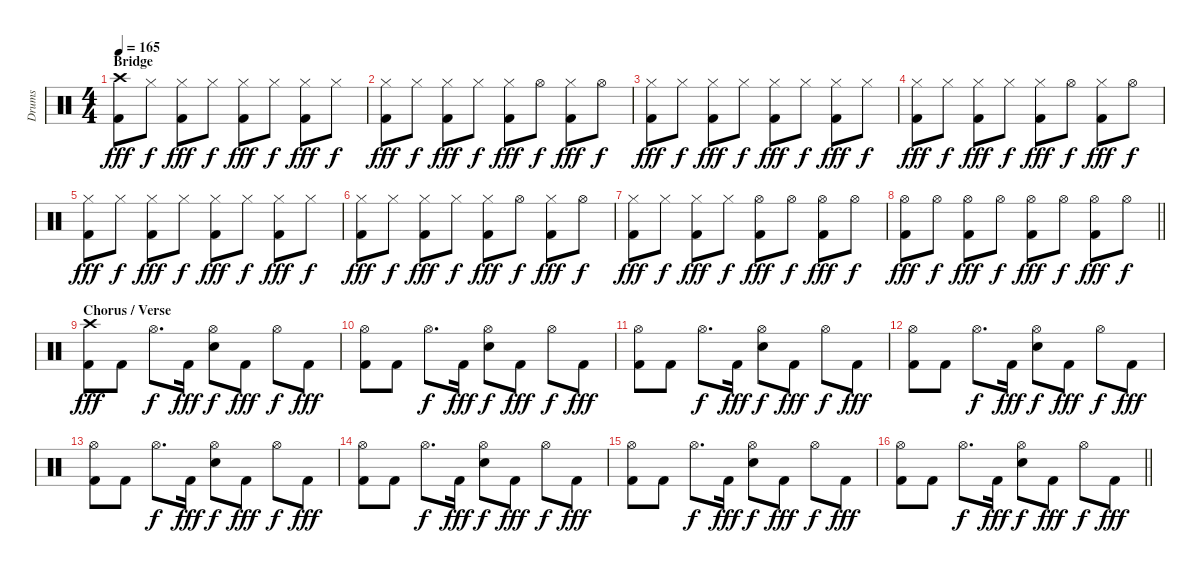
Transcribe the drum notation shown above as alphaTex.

\track ("Drums" "Drums") {instrument percussion}
\staff {score}
\articulation defaults
\ts (4 4)
\section ("" "Bridge")
\tempo 165
\clef neutral
\ks c
("Crash high (hit)" "Kick (hit) 2").8{dy fff} "Hi-Hat (closed)".8{dy f} ("Hi-Hat (closed)" "Kick (hit) 2").8{dy fff} "Hi-Hat (closed)".8{dy f} ("Hi-Hat (closed)" "Kick (hit) 2").8{dy fff} "Hi-Hat (closed)".8{dy f} ("Hi-Hat (closed)" "Kick (hit) 2").8{dy fff} "Hi-Hat (closed)".8{dy f} |
("Hi-Hat (closed)" "Kick (hit) 2").8{dy fff} "Hi-Hat (closed)".8{dy f} ("Hi-Hat (closed)" "Kick (hit) 2").8{dy fff} "Hi-Hat (closed)".8{dy f} ("Hi-Hat (closed)" "Kick (hit) 2").8{dy fff} "Hi-Hat (open)".8{dy f} ("Hi-Hat (closed)" "Kick (hit) 2").8{dy fff} "Hi-Hat (open)".8{dy f} |
("Hi-Hat (closed)" "Kick (hit) 2").8{dy fff} "Hi-Hat (closed)".8{dy f} ("Hi-Hat (closed)" "Kick (hit) 2").8{dy fff} "Hi-Hat (closed)".8{dy f} ("Hi-Hat (closed)" "Kick (hit) 2").8{dy fff} "Hi-Hat (closed)".8{dy f} ("Hi-Hat (closed)" "Kick (hit) 2").8{dy fff} "Hi-Hat (closed)".8{dy f} |
("Hi-Hat (closed)" "Kick (hit) 2").8{dy fff} "Hi-Hat (closed)".8{dy f} ("Hi-Hat (closed)" "Kick (hit) 2").8{dy fff} "Hi-Hat (closed)".8{dy f} ("Hi-Hat (closed)" "Kick (hit) 2").8{dy fff} "Hi-Hat (open)".8{dy f} ("Hi-Hat (closed)" "Kick (hit) 2").8{dy fff} "Hi-Hat (open)".8{dy f} |
("Hi-Hat (closed)" "Kick (hit) 2").8{dy fff} "Hi-Hat (closed)".8{dy f} ("Hi-Hat (closed)" "Kick (hit) 2").8{dy fff} "Hi-Hat (closed)".8{dy f} ("Hi-Hat (closed)" "Kick (hit) 2").8{dy fff} "Hi-Hat (closed)".8{dy f} ("Hi-Hat (closed)" "Kick (hit) 2").8{dy fff} "Hi-Hat (closed)".8{dy f} |
("Hi-Hat (closed)" "Kick (hit) 2").8{dy fff} "Hi-Hat (closed)".8{dy f} ("Hi-Hat (closed)" "Kick (hit) 2").8{dy fff} "Hi-Hat (closed)".8{dy f} ("Hi-Hat (closed)" "Kick (hit) 2").8{dy fff} "Hi-Hat (open)".8{dy f} ("Hi-Hat (closed)" "Kick (hit) 2").8{dy fff} "Hi-Hat (open)".8{dy f} |
("Hi-Hat (closed)" "Kick (hit) 2").8{dy fff} "Hi-Hat (closed)".8{dy f} ("Hi-Hat (closed)" "Kick (hit) 2").8{dy fff} "Hi-Hat (closed)".8{dy f} ("Hi-Hat (open)" "Kick (hit) 2").8{dy fff} "Hi-Hat (open)".8{dy f} ("Hi-Hat (open)" "Kick (hit) 2").8{dy fff} "Hi-Hat (open)".8{dy f} |
\barLineRight lightlight
("Hi-Hat (open)" "Kick (hit) 2").8{dy fff} "Hi-Hat (open)".8{dy f} ("Hi-Hat (open)" "Kick (hit) 2").8{dy fff} "Hi-Hat (open)".8{dy f} ("Hi-Hat (open)" "Kick (hit) 2").8{dy fff} "Hi-Hat (open)".8{dy f} ("Hi-Hat (open)" "Kick (hit) 2").8{dy fff} "Hi-Hat (open)".8{dy f} |
\section ("" "Chorus / Verse")
("Crash high (hit)" "Kick (hit) 2").8{dy fff} "Kick (hit) 2".8 "Hi-Hat (open)".8{d dy f} "Kick (hit) 2".16{dy fff} ("Hi-Hat (open)" "Snare (hit) 2").8{dy f} "Kick (hit) 2".8{dy fff} "Hi-Hat (open)".8{dy f} "Kick (hit) 2".8{dy fff} |
("Hi-Hat (open)" "Kick (hit) 2").8 "Kick (hit) 2".8 "Hi-Hat (open)".8{d dy f} "Kick (hit) 2".16{dy fff} ("Hi-Hat (open)" "Snare (hit) 2").8{dy f} "Kick (hit) 2".8{dy fff} "Hi-Hat (open)".8{dy f} "Kick (hit) 2".8{dy fff} |
("Hi-Hat (open)" "Kick (hit) 2").8 "Kick (hit) 2".8 "Hi-Hat (open)".8{d dy f} "Kick (hit) 2".16{dy fff} ("Hi-Hat (open)" "Snare (hit) 2").8{dy f} "Kick (hit) 2".8{dy fff} "Hi-Hat (open)".8{dy f} "Kick (hit) 2".8{dy fff} |
("Hi-Hat (open)" "Kick (hit) 2").8 "Kick (hit) 2".8 "Hi-Hat (open)".8{d dy f} "Kick (hit) 2".16{dy fff} ("Hi-Hat (open)" "Snare (hit) 2").8{dy f} "Kick (hit) 2".8{dy fff} "Hi-Hat (open)".8{dy f} "Kick (hit) 2".8{dy fff} |
("Hi-Hat (open)" "Kick (hit) 2").8 "Kick (hit) 2".8 "Hi-Hat (open)".8{d dy f} "Kick (hit) 2".16{dy fff} ("Hi-Hat (open)" "Snare (hit) 2").8{dy f} "Kick (hit) 2".8{dy fff} "Hi-Hat (open)".8{dy f} "Kick (hit) 2".8{dy fff} |
("Hi-Hat (open)" "Kick (hit) 2").8 "Kick (hit) 2".8 "Hi-Hat (open)".8{d dy f} "Kick (hit) 2".16{dy fff} ("Hi-Hat (open)" "Snare (hit) 2").8{dy f} "Kick (hit) 2".8{dy fff} "Hi-Hat (open)".8{dy f} "Kick (hit) 2".8{dy fff} |
("Hi-Hat (open)" "Kick (hit) 2").8 "Kick (hit) 2".8 "Hi-Hat (open)".8{d dy f} "Kick (hit) 2".16{dy fff} ("Hi-Hat (open)" "Snare (hit) 2").8{dy f} "Kick (hit) 2".8{dy fff} "Hi-Hat (open)".8{dy f} "Kick (hit) 2".8{dy fff} |
\barLineRight lightlight
("Hi-Hat (open)" "Kick (hit) 2").8 "Kick (hit) 2".8 "Hi-Hat (open)".8{d dy f} "Kick (hit) 2".16{dy fff} ("Hi-Hat (open)" "Snare (hit) 2").8{dy f} "Kick (hit) 2".8{dy fff} "Hi-Hat (open)".8{dy f} "Kick (hit) 2".8{dy fff}
